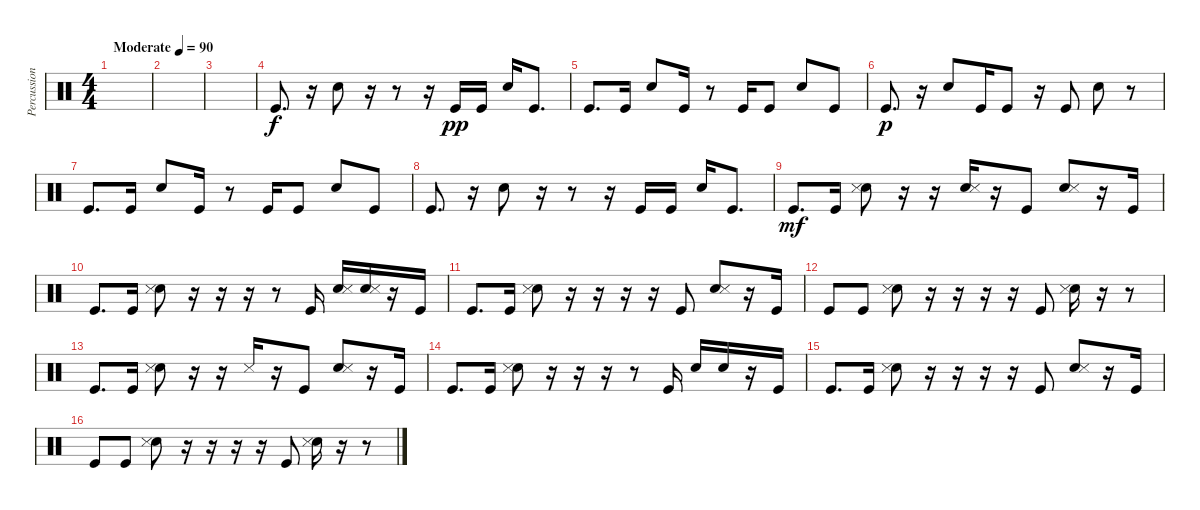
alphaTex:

\track ("Percussion" "Percussion") {instrument percussion}
\staff {score}
\articulation defaults
\ts (4 4)
\tempo (90 "Moderate")
\clef neutral
\ks c
|
|
|
"Kick (hit)".8{d} r.16 "Hand Clap (hit)".8 r.16 r.8 r.16 "Kick (hit)".16{dy pp} "Kick (hit)".16 "Hand Clap (hit)".16 "Kick (hit)".8{d} |
"Kick (hit)".8{d} "Kick (hit)".16 "Hand Clap (hit)".8 "Kick (hit)".16 r.8 "Kick (hit)".16 "Kick (hit)".8 "Hand Clap (hit)".8 "Kick (hit)".8 |
"Kick (hit)".8{d dy p} r.16 "Hand Clap (hit)".8 "Kick (hit)".16 "Kick (hit)".8 r.16 "Kick (hit)".8 "Hand Clap (hit)".8 r.8 |
"Kick (hit)".8{d} "Kick (hit)".16 "Hand Clap (hit)".8 "Kick (hit)".16 r.8 "Kick (hit)".16 "Kick (hit)".8 "Hand Clap (hit)".8 "Kick (hit)".8 |
"Kick (hit)".8{d} r.16 "Hand Clap (hit)".8 r.16 r.8 r.16 "Kick (hit)".16 "Kick (hit)".16 "Hand Clap (hit)".16 "Kick (hit)".8{d} |
"Kick (hit)".8{d dy mf} "Kick (hit)".16 ("Hand Clap (hit)" "Snare (side stick) 3").8 r.16 r.16 ("Hand Clap (hit)" "Snare (side stick) 3").16 r.16 "Kick (hit)".8 ("Hand Clap (hit)" "Snare (side stick) 3").8 r.16 "Kick (hit)".16 |
"Kick (hit)".8{d} "Kick (hit)".16 ("Hand Clap (hit)" "Snare (side stick) 3").8 r.16 r.16 r.16 r.8 "Kick (hit)".16 ("Hand Clap (hit)" "Snare (side stick) 3").16 ("Hand Clap (hit)" "Snare (side stick) 3").16 r.16 "Kick (hit)".16 |
"Kick (hit)".8{d} "Kick (hit)".16 ("Hand Clap (hit)" "Snare (side stick) 3").8 r.16 r.16 r.16 r.16 "Kick (hit)".8 ("Hand Clap (hit)" "Snare (side stick) 3").8 r.16 "Kick (hit)".16 |
"Kick (hit)".8 "Kick (hit)".8 ("Hand Clap (hit)" "Snare (side stick) 3").8 r.16 r.16 r.16 r.16 "Kick (hit)".8 ("Hand Clap (hit)" "Snare (side stick) 3").16 r.16 r.8 |
"Kick (hit)".8{d} "Kick (hit)".16 ("Hand Clap (hit)" "Snare (side stick) 3").8 r.16 r.16 "Snare (side stick) 3".16 r.16 "Kick (hit)".8 ("Hand Clap (hit)" "Snare (side stick) 3").8 r.16 "Kick (hit)".16 |
"Kick (hit)".8{d} "Kick (hit)".16 ("Hand Clap (hit)" "Snare (side stick) 3").8 r.16 r.16 r.16 r.8 "Kick (hit)".16 "Hand Clap (hit)".16 "Hand Clap (hit)".16 r.16 "Kick (hit)".16 |
"Kick (hit)".8{d} "Kick (hit)".16 ("Hand Clap (hit)" "Snare (side stick) 3").8 r.16 r.16 r.16 r.16 "Kick (hit)".8 ("Hand Clap (hit)" "Snare (side stick) 3").8 r.16 "Kick (hit)".16 |
"Kick (hit)".8 "Kick (hit)".8 ("Hand Clap (hit)" "Snare (side stick) 3").8 r.16 r.16 r.16 r.16 "Kick (hit)".8 ("Hand Clap (hit)" "Snare (side stick) 3").16 r.16 r.8
